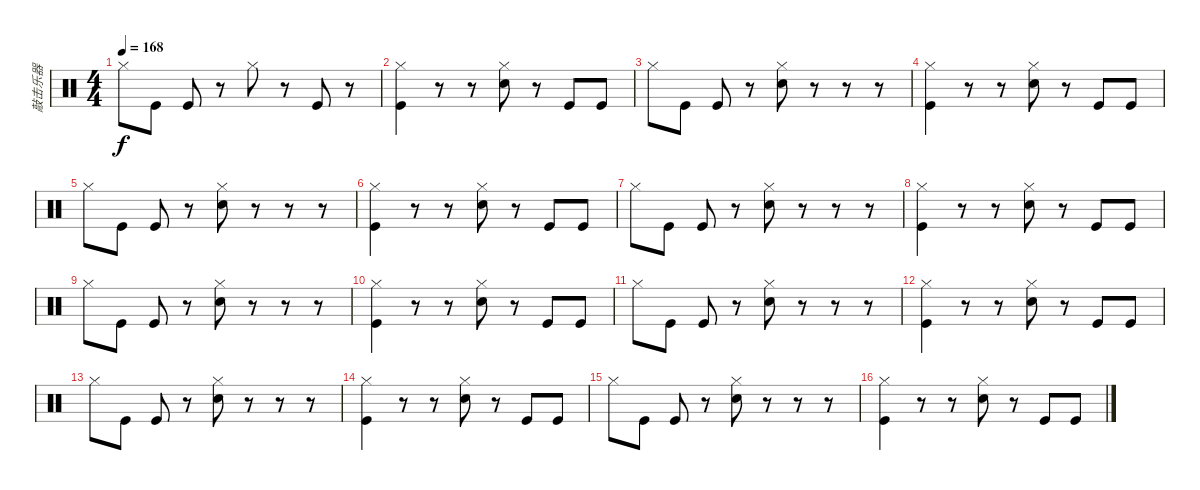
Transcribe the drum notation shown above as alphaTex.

\track ("敲击乐器" "敲击乐器") {instrument percussion}
\staff {score}
\articulation defaults
\ts (4 4)
\tempo 168
\clef neutral
\ks c "Hi-Hat (closed)".8{dy f} "Kick (hit)".8 "Kick (hit)".8
r.8 "Hi-Hat (closed)".8 r.8 "Kick (hit)".8 r.8 |
("Hi-Hat (closed)" "Kick (hit)").4 r.8 r.8 ("Hi-Hat (closed)" "Snare (hit) 2").8 r.8 "Kick (hit)".8 "Kick (hit)".8 |
"Hi-Hat (closed)".8 "Kick (hit)".8 "Kick (hit)".8 r.8 ("Hi-Hat (closed)" "Snare (hit) 2").8 r.8 r.8 r.8 |
("Hi-Hat (closed)" "Kick (hit)").4 r.8 r.8 ("Hi-Hat (closed)" "Snare (hit) 2").8 r.8 "Kick (hit)".8 "Kick (hit)".8 |
"Hi-Hat (closed)".8 "Kick (hit)".8 "Kick (hit)".8 r.8 ("Hi-Hat (closed)" "Snare (hit) 2").8 r.8 r.8 r.8 |
("Hi-Hat (closed)" "Kick (hit)").4 r.8 r.8 ("Hi-Hat (closed)" "Snare (hit) 2").8 r.8 "Kick (hit)".8 "Kick (hit)".8 |
"Hi-Hat (closed)".8 "Kick (hit)".8 "Kick (hit)".8 r.8 ("Hi-Hat (closed)" "Snare (hit) 2").8 r.8 r.8 r.8 |
("Hi-Hat (closed)" "Kick (hit)").4 r.8 r.8 ("Hi-Hat (closed)" "Snare (hit) 2").8 r.8 "Kick (hit)".8 "Kick (hit)".8 |
"Hi-Hat (closed)".8 "Kick (hit)".8 "Kick (hit)".8 r.8 ("Hi-Hat (closed)" "Snare (hit) 2").8 r.8 r.8 r.8 |
("Hi-Hat (closed)" "Kick (hit)").4 r.8 r.8 ("Hi-Hat (closed)" "Snare (hit) 2").8 r.8 "Kick (hit)".8 "Kick (hit)".8 |
"Hi-Hat (closed)".8 "Kick (hit)".8 "Kick (hit)".8 r.8 ("Hi-Hat (closed)" "Snare (hit) 2").8 r.8 r.8 r.8 |
("Hi-Hat (closed)" "Kick (hit)").4 r.8 r.8 ("Hi-Hat (closed)" "Snare (hit) 2").8 r.8 "Kick (hit)".8 "Kick (hit)".8 |
"Hi-Hat (closed)".8 "Kick (hit)".8 "Kick (hit)".8 r.8 ("Hi-Hat (closed)" "Snare (hit) 2").8 r.8 r.8 r.8 |
("Hi-Hat (closed)" "Kick (hit)").4 r.8 r.8 ("Hi-Hat (closed)" "Snare (hit) 2").8 r.8 "Kick (hit)".8 "Kick (hit)".8 |
"Hi-Hat (closed)".8 "Kick (hit)".8 "Kick (hit)".8 r.8 ("Hi-Hat (closed)" "Snare (hit) 2").8 r.8 r.8 r.8 |
("Hi-Hat (closed)" "Kick (hit)").4 r.8 r.8 ("Hi-Hat (closed)" "Snare (hit) 2").8 r.8 "Kick (hit)".8 "Kick (hit)".8
